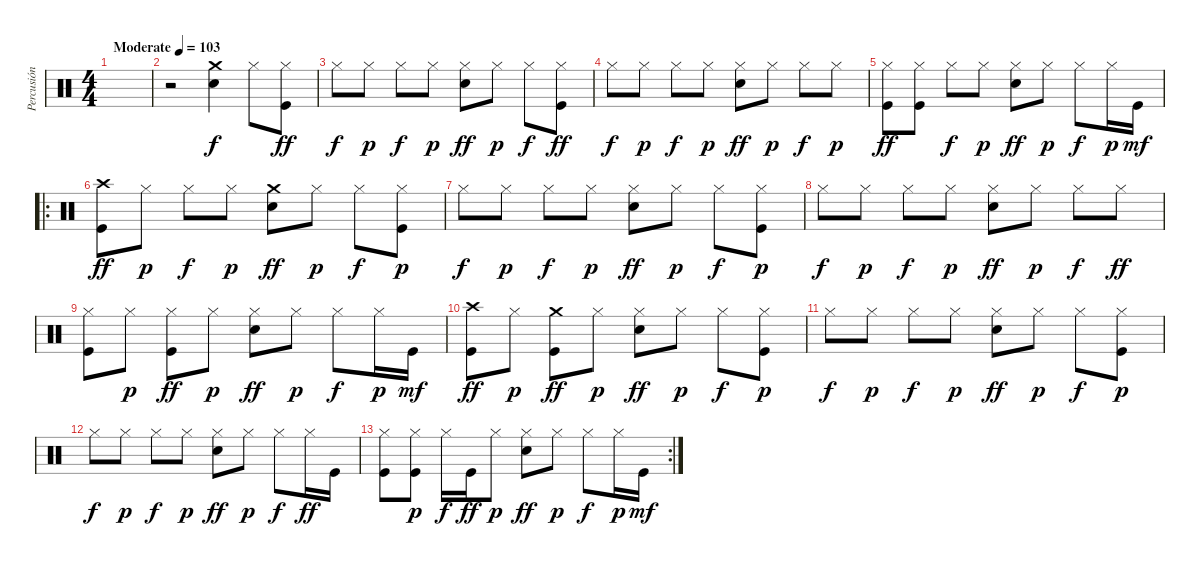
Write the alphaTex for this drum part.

\track ("Percusión" "Percusión") {instrument percussion}
\staff {score}
\articulation defaults
\ts (4 4)
\tempo (103 "Moderate")
\clef neutral
\ks c
|
r.2 ("Crash medium (hit)" "Snare (hit) 2").4 "Hi-Hat (closed)".8{dy f} ("Kick (hit)" "Hi-Hat (closed)").8{dy ff} |
"Hi-Hat (closed)".8{dy f} "Hi-Hat (closed)".8{dy p} "Hi-Hat (closed)".8{dy f} "Hi-Hat (closed)".8{dy p} ("Snare (hit) 2" "Hi-Hat (closed)").8{dy ff} "Hi-Hat (closed)".8{dy p} "Hi-Hat (closed)".8{dy f} ("Kick (hit)" "Hi-Hat (closed)").8{dy ff} |
"Hi-Hat (closed)".8{dy f} "Hi-Hat (closed)".8{dy p} "Hi-Hat (closed)".8{dy f} "Hi-Hat (closed)".8{dy p} ("Snare (hit) 2" "Hi-Hat (closed)").8{dy ff} "Hi-Hat (closed)".8{dy p} "Hi-Hat (closed)".8{dy f} "Hi-Hat (closed)".8{dy p} |
("Kick (hit)" "Hi-Hat (closed)").8{dy ff} ("Kick (hit)" "Hi-Hat (closed)").8 "Hi-Hat (closed)".8{dy f} "Hi-Hat (closed)".8{dy p} ("Snare (hit) 2" "Hi-Hat (closed)").8{dy ff} "Hi-Hat (closed)".8{dy p} "Hi-Hat (closed)".8{dy f} "Hi-Hat (closed)".16{dy p} "Kick (hit)".16{dy mf} |
\ro
("Crash high (hit)" "Kick (hit)").8{dy ff} "Hi-Hat (closed)".8{dy p} "Hi-Hat (closed)".8{dy f} "Hi-Hat (closed)".8{dy p} ("Snare (hit) 2" "Crash medium (hit)").8{dy ff} "Hi-Hat (closed)".8{dy p} "Hi-Hat (closed)".8{dy f} ("Kick (hit)" "Hi-Hat (closed)").8{dy p} |
"Hi-Hat (closed)".8{dy f} "Hi-Hat (closed)".8{dy p} "Hi-Hat (closed)".8{dy f} "Hi-Hat (closed)".8{dy p} ("Snare (hit) 2" "Hi-Hat (closed)").8{dy ff} "Hi-Hat (closed)".8{dy p} "Hi-Hat (closed)".8{dy f} ("Kick (hit)" "Hi-Hat (closed)").8{dy p} |
"Hi-Hat (closed)".8{dy f} "Hi-Hat (closed)".8{dy p} "Hi-Hat (closed)".8{dy f} "Hi-Hat (closed)".8{dy p} ("Snare (hit) 2" "Hi-Hat (closed)").8{dy ff} "Hi-Hat (closed)".8{dy p} "Hi-Hat (closed)".8{dy f} "Hi-Hat (closed)".8{dy ff} |
("Hi-Hat (closed)" "Kick (hit)").8 "Hi-Hat (closed)".8{dy p} ("Hi-Hat (closed)" "Kick (hit)").8{dy ff} "Hi-Hat (closed)".8{dy p} ("Snare (hit) 2" "Hi-Hat (closed)").8{dy ff} "Hi-Hat (closed)".8{dy p} "Hi-Hat (closed)".8{dy f} "Hi-Hat (closed)".16{dy p} "Kick (hit)".16{dy mf} |
("Crash high (hit)" "Kick (hit)").8{dy ff} "Hi-Hat (closed)".8{dy p} ("Crash medium (hit)" "Kick (hit)").8{dy ff} "Hi-Hat (closed)".8{dy p} ("Snare (hit) 2" "Hi-Hat (closed)").8{dy ff} "Hi-Hat (closed)".8{dy p} "Hi-Hat (closed)".8{dy f} ("Kick (hit)" "Hi-Hat (closed)").8{dy p} |
"Hi-Hat (closed)".8{dy f} "Hi-Hat (closed)".8{dy p} "Hi-Hat (closed)".8{dy f} "Hi-Hat (closed)".8{dy p} ("Snare (hit) 2" "Hi-Hat (closed)").8{dy ff} "Hi-Hat (closed)".8{dy p} "Hi-Hat (closed)".8{dy f} ("Kick (hit)" "Hi-Hat (closed)").8{dy p} |
"Hi-Hat (closed)".8{dy f} "Hi-Hat (closed)".8{dy p} "Hi-Hat (closed)".8{dy f} "Hi-Hat (closed)".8{dy p} ("Snare (hit) 2" "Hi-Hat (closed)").8{dy ff} "Hi-Hat (closed)".8{dy p} "Hi-Hat (closed)".8{dy f} "Hi-Hat (closed)".16{dy ff} "Kick (hit)".16 |
\rc 2
("Kick (hit)" "Hi-Hat (closed)").8 ("Kick (hit)" "Hi-Hat (closed)").8{dy p} "Hi-Hat (closed)".16{dy f} "Kick (hit)".16{dy ff} "Hi-Hat (closed)".8{dy p} ("Snare (hit) 2" "Hi-Hat (closed)").8{dy ff} "Hi-Hat (closed)".8{dy p} "Hi-Hat (closed)".8{dy f} "Hi-Hat (closed)".16{dy p} "Kick (hit)".16{dy mf}
